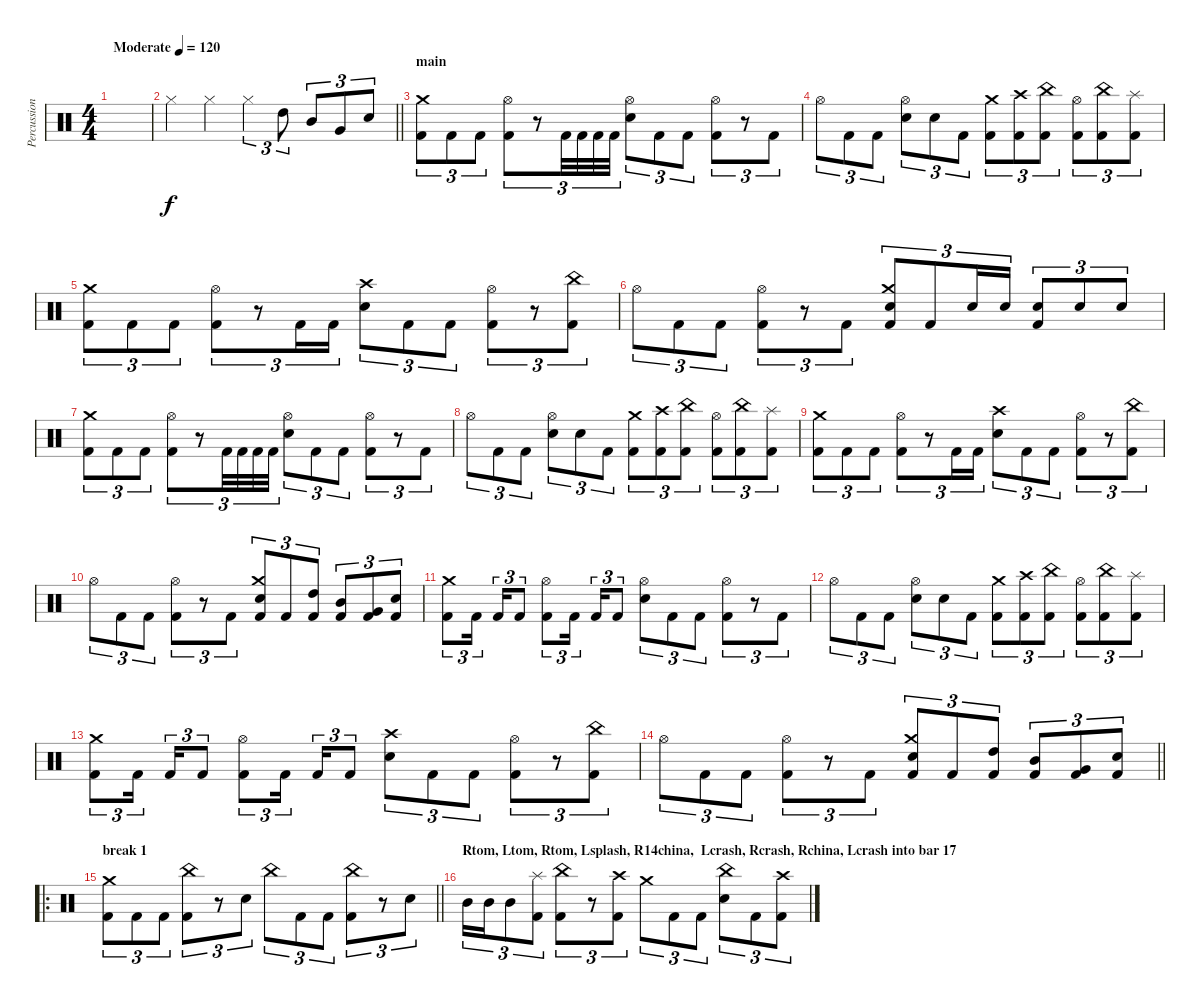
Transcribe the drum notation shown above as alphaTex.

\track ("Percussion" "Percussion") {instrument percussion}
\staff {score}
\articulation defaults
\ts (4 4)
\tempo (120 "Moderate")
\clef neutral
\ks c
|
\barLineRight lightlight "Hi-Hat (closed)".4 "Hi-Hat (closed)".4 "Hi-Hat (closed)".4{tu (3 2)} "High Tom (hit)".8{tu (3 2)} "Mid Tom (hit)".8{tu (3 2)} "Very Low Tom (hit)".8{tu (3 2)} "Snare (hit) 2".8{tu (3 2)}
|
\section ("" "main")
("Crash medium (hit)" "Kick (hit) 2").8{tu (3 2)} "Kick (hit) 2".8{tu (3 2)} "Kick (hit) 2".8{tu (3 2)} ("Hi-Hat (open)" "Kick (hit) 2").8{tu (3 2)} r.8{tu (3 2)} "Kick (hit) 2".32{tu (3 2)} "Kick (hit) 2".32{tu (3 2)} "Kick (hit) 2".32{tu (3 2)} "Kick (hit) 2".32{tu (3 2)} ("Hi-Hat (open)" "Snare (hit) 2").8{tu (3 2)} "Kick (hit) 2".8{tu (3 2)} "Kick (hit) 2".8{tu (3 2)} ("Hi-Hat (open)" "Kick (hit) 2").8{tu (3 2)} r.8{tu (3 2)} "Kick (hit) 2".8{tu (3 2)} |
"Hi-Hat (open)".8{tu (3 2)} "Kick (hit) 2".8{tu (3 2)} "Kick (hit) 2".8{tu (3 2)} ("Hi-Hat (open)" "Snare (hit) 2").8{tu (3 2)} "Snare (hit) 2".8{tu (3 2)} "Kick (hit) 2".8{tu (3 2)} ("Crash medium (hit)" "Kick (hit) 2").8{tu (3 2)} ("Crash high (hit)" "Kick (hit) 2").8{tu (3 2)} ("China (hit)" "Kick (hit) 2").8{tu (3 2)} ("Hi-Hat (open)" "Kick (hit) 2").8{tu (3 2)} ("China (hit)" "Kick (hit) 2").8{tu (3 2)} ("Splash (hit)" "Kick (hit) 2").8{tu (3 2)} |
("Crash medium (hit)" "Kick (hit) 2").8{tu (3 2)} "Kick (hit) 2".8{tu (3 2)} "Kick (hit) 2".8{tu (3 2)} ("Hi-Hat (open)" "Kick (hit) 2").8{tu (3 2)} r.8{tu (3 2)} "Kick (hit) 2".16{tu (3 2)} "Kick (hit) 2".16{tu (3 2)} ("Crash high (hit)" "Snare (hit) 2").8{tu (3 2)} "Kick (hit) 2".8{tu (3 2)} "Kick (hit) 2".8{tu (3 2)} ("Hi-Hat (open)" "Kick (hit) 2").8{tu (3 2)} r.8{tu (3 2)} ("China (hit)" "Kick (hit) 2").8{tu (3 2)} |
"Hi-Hat (open)".8{tu (3 2)} "Kick (hit) 2".8{tu (3 2)} "Kick (hit) 2".8{tu (3 2)} ("Hi-Hat (open)" "Kick (hit) 2").8{tu (3 2)} r.8{tu (3 2)} "Kick (hit) 2".8{tu (3 2)} ("Crash medium (hit)" "Snare (hit) 2" "Kick (hit) 2").8{tu (3 2)} "Kick (hit) 2".8{tu (3 2)} "Snare (hit) 2".16{tu (3 2)} "Snare (hit) 2".16{tu (3 2)} ("Snare (hit) 2" "Kick (hit) 2").8{tu (3 2)} "Snare (hit) 2".8{tu (3 2)} "Snare (hit) 2".8{tu (3 2)} |
("Crash medium (hit)" "Kick (hit) 2").8{tu (3 2)} "Kick (hit) 2".8{tu (3 2)} "Kick (hit) 2".8{tu (3 2)} ("Hi-Hat (open)" "Kick (hit) 2").8{tu (3 2)} r.8{tu (3 2)} "Kick (hit) 2".32{tu (3 2)} "Kick (hit) 2".32{tu (3 2)} "Kick (hit) 2".32{tu (3 2)} "Kick (hit) 2".32{tu (3 2)} ("Hi-Hat (open)" "Snare (hit) 2").8{tu (3 2)} "Kick (hit) 2".8{tu (3 2)} "Kick (hit) 2".8{tu (3 2)} ("Hi-Hat (open)" "Kick (hit) 2").8{tu (3 2)} r.8{tu (3 2)} "Kick (hit) 2".8{tu (3 2)} |
"Hi-Hat (open)".8{tu (3 2)} "Kick (hit) 2".8{tu (3 2)} "Kick (hit) 2".8{tu (3 2)} ("Hi-Hat (open)" "Snare (hit) 2").8{tu (3 2)} "Snare (hit) 2".8{tu (3 2)} "Kick (hit) 2".8{tu (3 2)} ("Crash medium (hit)" "Kick (hit) 2").8{tu (3 2)} ("Crash high (hit)" "Kick (hit) 2").8{tu (3 2)} ("China (hit)" "Kick (hit) 2").8{tu (3 2)} ("Hi-Hat (open)" "Kick (hit) 2").8{tu (3 2)} ("China (hit)" "Kick (hit) 2").8{tu (3 2)} ("Splash (hit)" "Kick (hit) 2").8{tu (3 2)} |
("Crash medium (hit)" "Kick (hit) 2").8{tu (3 2)} "Kick (hit) 2".8{tu (3 2)} "Kick (hit) 2".8{tu (3 2)} ("Hi-Hat (open)" "Kick (hit) 2").8{tu (3 2)} r.8{tu (3 2)} "Kick (hit) 2".16{tu (3 2)} "Kick (hit) 2".16{tu (3 2)} ("Crash high (hit)" "Snare (hit) 2").8{tu (3 2)} "Kick (hit) 2".8{tu (3 2)} "Kick (hit) 2".8{tu (3 2)} ("Hi-Hat (open)" "Kick (hit) 2").8{tu (3 2)} r.8{tu (3 2)} ("China (hit)" "Kick (hit) 2").8{tu (3 2)} |
"Hi-Hat (open)".8{tu (3 2)} "Kick (hit) 2".8{tu (3 2)} "Kick (hit) 2".8{tu (3 2)} ("Hi-Hat (open)" "Kick (hit) 2").8{tu (3 2)} r.8{tu (3 2)} "Kick (hit) 2".8{tu (3 2)} ("Crash medium (hit)" "Snare (hit) 2" "Kick (hit) 2").8{tu (3 2)} "Kick (hit) 2".8{tu (3 2)} ("High Tom (hit)" "Kick (hit) 2").8{tu (3 2)} ("Mid Tom (hit)" "Kick (hit) 2").8{tu (3 2)} ("Very Low Tom (hit)" "Kick (hit) 2").8{tu (3 2)} ("Snare (hit) 2" "Kick (hit) 2").8{tu (3 2)} |
("Crash medium (hit)" "Kick (hit) 2").8{tu (3 2)} "Kick (hit) 2".16{tu (3 2) beam splitsecondary} "Kick (hit) 2".16{tu (3 2)} "Kick (hit) 2".8{tu (3 2)} ("Hi-Hat (open)" "Kick (hit) 2").8{tu (3 2)} "Kick (hit) 2".16{tu (3 2) beam splitsecondary} "Kick (hit) 2".16{tu (3 2)} "Kick (hit) 2".8{tu (3 2)} ("Hi-Hat (open)" "Snare (hit) 2").8{tu (3 2)} "Kick (hit) 2".8{tu (3 2)} "Kick (hit) 2".8{tu (3 2)} ("Hi-Hat (open)" "Kick (hit) 2").8{tu (3 2)} r.8{tu (3 2)} "Kick (hit) 2".8{tu (3 2)} |
"Hi-Hat (open)".8{tu (3 2)} "Kick (hit) 2".8{tu (3 2)} "Kick (hit) 2".8{tu (3 2)} ("Hi-Hat (open)" "Snare (hit) 2").8{tu (3 2)} "Snare (hit) 2".8{tu (3 2)} "Kick (hit) 2".8{tu (3 2)} ("Crash medium (hit)" "Kick (hit) 2").8{tu (3 2)} ("Crash high (hit)" "Kick (hit) 2").8{tu (3 2)} ("China (hit)" "Kick (hit) 2").8{tu (3 2)} ("Hi-Hat (open)" "Kick (hit) 2").8{tu (3 2)} ("China (hit)" "Kick (hit) 2").8{tu (3 2)} ("Splash (hit)" "Kick (hit) 2").8{tu (3 2)} |
("Crash medium (hit)" "Kick (hit) 2").8{tu (3 2)} "Kick (hit) 2".16{tu (3 2) beam splitsecondary} "Kick (hit) 2".16{tu (3 2)} "Kick (hit) 2".8{tu (3 2)} ("Hi-Hat (open)" "Kick (hit) 2").8{tu (3 2)} "Kick (hit) 2".16{tu (3 2) beam splitsecondary} "Kick (hit) 2".16{tu (3 2)} "Kick (hit) 2".8{tu (3 2)} ("Crash high (hit)" "Snare (hit) 2").8{tu (3 2)} "Kick (hit) 2".8{tu (3 2)} "Kick (hit) 2".8{tu (3 2)} ("Hi-Hat (open)" "Kick (hit) 2").8{tu (3 2)} r.8{tu (3 2)} ("China (hit)" "Kick (hit) 2").8{tu (3 2)} |
\barLineRight lightlight "Hi-Hat (open)".8{tu (3 2)} "Kick (hit) 2".8{tu (3 2)} "Kick (hit) 2".8{tu (3 2)}
("Hi-Hat (open)" "Kick (hit) 2").8{tu (3 2)} r.8{tu (3 2)} "Kick (hit) 2".8{tu (3 2)} ("Crash medium (hit)" "Snare (hit) 2" "Kick (hit) 2").8{tu (3 2)} "Kick (hit) 2".8{tu (3 2)} ("High Tom (hit)" "Kick (hit) 2").8{tu (3 2)} ("Mid Tom (hit)" "Kick (hit) 2").8{tu (3 2)} ("Very Low Tom (hit)" "Kick (hit) 2").8{tu (3 2)} ("Snare (hit) 2" "Kick (hit) 2").8{tu (3 2)} |
\ro
\section ("" "break 1")
\barLineRight lightlight
("Crash medium (hit)" "Kick (hit) 2").8{tu (3 2)} "Kick (hit) 2".8{tu (3 2)} "Kick (hit) 2".8{tu (3 2)} ("China (hit)" "Kick (hit) 2").8{tu (3 2)} r.8{tu (3 2)} "Snare (hit) 2".8{tu (3 2)} "China (hit)".8{tu (3 2)} "Kick (hit) 2".8{tu (3 2)} "Kick (hit) 2".8{tu (3 2)} ("China (hit)" "Kick (hit) 2").8{tu (3 2)} r.8{tu (3 2)} "Snare (hit) 2".8{tu (3 2)} |
\section ("" "Rtom, Ltom, Rtom, Lsplash, R14china,  Lcrash, Rcrash, Rchina, Lcrash into bar 17")
"Mid Tom (hit)".16{tu (3 2)} "Mid Tom (hit)".16{tu (3 2)} "Mid Tom (hit)".8{tu (3 2)} ("Splash (hit)" "Kick (hit) 2").8{tu (3 2)} ("China (hit)" "Kick (hit) 2").8{tu (3 2)} r.8{tu (3 2)} ("Crash high (hit)" "Kick (hit) 2").8{tu (3 2)} "Crash medium (hit)".8{tu (3 2)} "Kick (hit) 2".8{tu (3 2)} "Kick (hit) 2".8{tu (3 2)} ("China (hit)" "Snare (hit) 2").8{tu (3 2)} "Kick (hit) 2".8{tu (3 2)} ("Crash high (hit)" "Kick (hit) 2").8{tu (3 2)}
